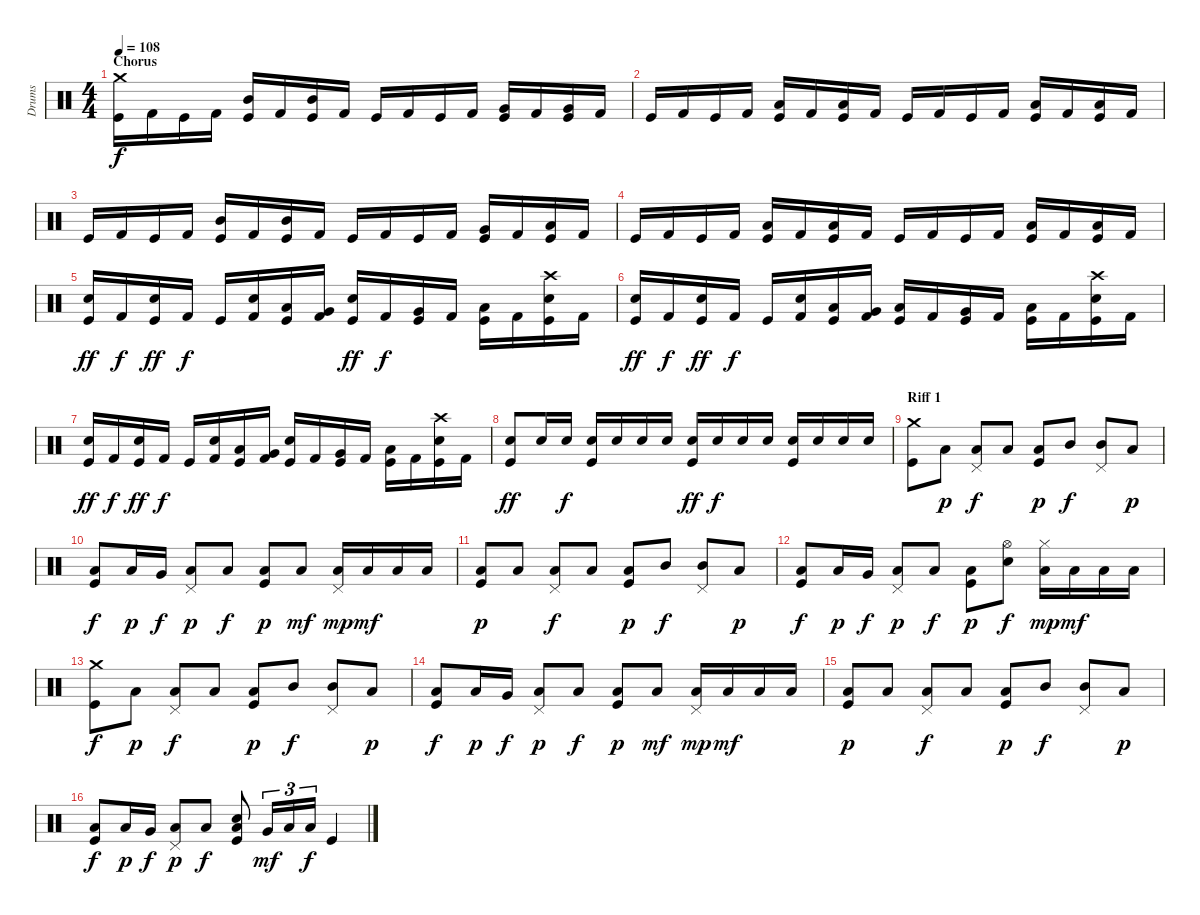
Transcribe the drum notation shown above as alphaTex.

\track ("Drums" "Drums") {instrument percussion}
\staff {score}
\articulation defaults
\ts (4 4)
\section ("" "Chorus")
\tempo 108
\clef neutral
\ks c
("Crash medium (hit)" "Kick (hit)").16{dy f} "Kick (hit) 2".16 "Kick (hit)".16 "Kick (hit) 2".16 ("Mid Tom (hit)" "Kick (hit)").16 "Kick (hit) 2".16 ("Mid Tom (hit)" "Kick (hit)").16 "Kick (hit) 2".16 "Kick (hit)".16 "Kick (hit) 2".16 "Kick (hit)".16 "Kick (hit) 2".16 ("Very Low Tom (hit)" "Kick (hit)").16 "Kick (hit) 2".16 ("Very Low Tom (hit)" "Kick (hit)").16 "Kick (hit) 2".16 |
"Kick (hit)".16 "Kick (hit) 2".16 "Kick (hit)".16 "Kick (hit) 2".16 ("Low Tom (hit)" "Kick (hit)").16 "Kick (hit) 2".16 ("Low Tom (hit)" "Kick (hit)").16 "Kick (hit) 2".16 "Kick (hit)".16 "Kick (hit) 2".16 "Kick (hit)".16 "Kick (hit) 2".16 ("Low Floor Tom (hit)" "Kick (hit)").16 "Kick (hit) 2".16 ("Low Floor Tom (hit)" "Kick (hit)").16 "Kick (hit) 2".16 |
"Kick (hit)".16 "Kick (hit) 2".16 "Kick (hit)".16 "Kick (hit) 2".16 ("Mid Tom (hit)" "Kick (hit)").16 "Kick (hit) 2".16 ("Mid Tom (hit)" "Kick (hit)").16 "Kick (hit) 2".16 "Kick (hit)".16 "Kick (hit) 2".16 "Kick (hit)".16 "Kick (hit) 2".16 ("Very Low Tom (hit)" "Kick (hit)").16 "Kick (hit) 2".16 ("Low Floor Tom (hit)" "Kick (hit)").16 "Kick (hit) 2".16 |
"Kick (hit)".16 "Kick (hit) 2".16 "Kick (hit)".16 "Kick (hit) 2".16 ("Low Tom (hit)" "Kick (hit)").16 "Kick (hit) 2".16 ("Low Tom (hit)" "Kick (hit)").16 "Kick (hit) 2".16 "Kick (hit)".16 "Kick (hit) 2".16 "Kick (hit)".16 "Kick (hit) 2".16 ("Low Floor Tom (hit)" "Kick (hit)").16 "Kick (hit) 2".16 ("Low Floor Tom (hit)" "Kick (hit)").16 "Kick (hit) 2".16 |
("Electric Snare (hit)" "Kick (hit)").16{dy ff} "Kick (hit) 2".16{dy f} ("Electric Snare (hit)" "Kick (hit)").16{dy ff} "Kick (hit) 2".16{dy f} "Kick (hit)".16 ("Electric Snare (hit)" "Kick (hit) 2").16 ("Low Tom (hit)" "Kick (hit)").16 ("Very Low Tom (hit)" "Kick (hit) 2").16 ("Electric Snare (hit)" "Kick (hit)").16{dy ff} "Kick (hit) 2".16{dy f} ("Very Low Tom (hit)" "Kick (hit)").16 "Kick (hit) 2".16 ("Low Floor Tom (hit)" "Kick (hit)").16 "Kick (hit) 2".16 ("Crash high (hit)" "Electric Snare (hit)" "Kick (hit)").16 "Kick (hit) 2".16 |
("Electric Snare (hit)" "Kick (hit)").16{dy ff} "Kick (hit) 2".16{dy f} ("Electric Snare (hit)" "Kick (hit)").16{dy ff} "Kick (hit) 2".16{dy f} "Kick (hit)".16 ("Electric Snare (hit)" "Kick (hit) 2").16 ("Low Tom (hit)" "Kick (hit)").16 ("Very Low Tom (hit)" "Kick (hit) 2").16 ("Low Tom (hit)" "Kick (hit)").16 "Kick (hit) 2".16 ("Very Low Tom (hit)" "Kick (hit)").16 "Kick (hit) 2".16 ("Low Floor Tom (hit)" "Kick (hit)").16 "Kick (hit) 2".16 ("Crash high (hit)" "Electric Snare (hit)" "Kick (hit)").16 "Kick (hit) 2".16 |
("Electric Snare (hit)" "Kick (hit)").16{dy ff} "Kick (hit) 2".16{dy f} ("Electric Snare (hit)" "Kick (hit)").16{dy ff} "Kick (hit) 2".16{dy f} "Kick (hit)".16 ("Electric Snare (hit)" "Kick (hit) 2").16 ("Low Tom (hit)" "Kick (hit)").16 ("Very Low Tom (hit)" "Kick (hit) 2").16 ("Electric Snare (hit)" "Kick (hit)").16 "Kick (hit) 2".16 ("Very Low Tom (hit)" "Kick (hit)").16 "Kick (hit) 2".16 ("Low Floor Tom (hit)" "Kick (hit)").16 "Kick (hit) 2".16 ("Crash high (hit)" "Electric Snare (hit)" "Kick (hit)").16 "Kick (hit) 2".16 |
("Electric Snare (hit)" "Kick (hit)").8{dy ff} "Electric Snare (hit)".16 "Electric Snare (hit)".16{dy f} ("Electric Snare (hit)" "Kick (hit)").16 "Electric Snare (hit)".16 "Electric Snare (hit)".16 "Electric Snare (hit)".16 ("Electric Snare (hit)" "Kick (hit)").16{dy ff} "Electric Snare (hit)".16{dy f} "Electric Snare (hit)".16 "Electric Snare (hit)".16 ("Electric Snare (hit)" "Kick (hit)").16 "Electric Snare (hit)".16 "Electric Snare (hit)".16 "Electric Snare (hit)".16 |
\section ("" "Riff 1")
("Crash medium (hit)" "Kick (hit)").8 "Low Floor Tom (hit)".8{dy p} ("Low Tom (hit)" "Pedal Hi-Hat (hit)").8{dy f} "Low Tom (hit)".8 ("Low Floor Tom (hit)" "Kick (hit)").8{dy p} "Mid Tom (hit)".8{dy f} ("Mid Tom (hit)" "Pedal Hi-Hat (hit)").8 "Low Floor Tom (hit)".8{dy p} |
("Low Tom (hit)" "Kick (hit)").8{dy f} "Low Floor Tom (hit)".16{dy p} "Very Low Tom (hit)".16{dy f} ("Low Floor Tom (hit)" "Pedal Hi-Hat (hit)").8{dy p} "Low Tom (hit)".8{dy f} ("Low Floor Tom (hit)" "Kick (hit)").8{dy p} "Low Floor Tom (hit)".8{dy mf} ("Low Floor Tom (hit)" "Pedal Hi-Hat (hit)").16{dy mp} "Low Floor Tom (hit)".16{dy mf} "Low Floor Tom (hit)".16 "Low Floor Tom (hit)".16 |
("Low Floor Tom (hit)" "Kick (hit)").8{dy p} "Low Floor Tom (hit)".8 ("Low Tom (hit)" "Pedal Hi-Hat (hit)").8{dy f} "Low Tom (hit)".8 ("Low Floor Tom (hit)" "Kick (hit)").8{dy p} "Mid Tom (hit)".8{dy f} ("Mid Tom (hit)" "Pedal Hi-Hat (hit)").8 "Low Floor Tom (hit)".8{dy p} |
("Low Tom (hit)" "Kick (hit)").8{dy f} "Low Floor Tom (hit)".16{dy p} "Very Low Tom (hit)".16{dy f} ("Low Floor Tom (hit)" "Pedal Hi-Hat (hit)").8{dy p} "Low Tom (hit)".8{dy f} ("Low Floor Tom (hit)" "Kick (hit)").8{dy p} ("Hi-Hat (open)" "Electric Snare (hit)").8{dy f} ("Hi-Hat (closed)" "Low Floor Tom (hit)").16{dy mp} "Low Floor Tom (hit)".16{dy mf} "Low Floor Tom (hit)".16 "Low Floor Tom (hit)".16 |
("Crash medium (hit)" "Kick (hit)").8{dy f} "Low Floor Tom (hit)".8{dy p} ("Low Tom (hit)" "Pedal Hi-Hat (hit)").8{dy f} "Low Tom (hit)".8 ("Low Floor Tom (hit)" "Kick (hit)").8{dy p} "Mid Tom (hit)".8{dy f} ("Mid Tom (hit)" "Pedal Hi-Hat (hit)").8 "Low Floor Tom (hit)".8{dy p} |
("Low Tom (hit)" "Kick (hit)").8{dy f} "Low Floor Tom (hit)".16{dy p} "Very Low Tom (hit)".16{dy f} ("Low Floor Tom (hit)" "Pedal Hi-Hat (hit)").8{dy p} "Low Tom (hit)".8{dy f} ("Low Floor Tom (hit)" "Kick (hit)").8{dy p} "Low Floor Tom (hit)".8{dy mf} ("Low Floor Tom (hit)" "Pedal Hi-Hat (hit)").16{dy mp} "Low Floor Tom (hit)".16{dy mf} "Low Floor Tom (hit)".16 "Low Floor Tom (hit)".16 |
("Low Floor Tom (hit)" "Kick (hit)").8{dy p} "Low Floor Tom (hit)".8 ("Low Tom (hit)" "Pedal Hi-Hat (hit)").8{dy f} "Low Tom (hit)".8 ("Low Floor Tom (hit)" "Kick (hit)").8{dy p} "Mid Tom (hit)".8{dy f} ("Mid Tom (hit)" "Pedal Hi-Hat (hit)").8 "Low Floor Tom (hit)".8{dy p} |
("Low Tom (hit)" "Kick (hit)").8{dy f} "Low Floor Tom (hit)".16{dy p} "Very Low Tom (hit)".16{dy f} ("Low Floor Tom (hit)" "Pedal Hi-Hat (hit)").8{dy p} "Low Tom (hit)".8{dy f} ("Electric Snare (hit)" "Low Floor Tom (hit)" "Kick (hit)").8 "Very Low Tom (hit)".16{tu (3 2) dy mf} "Low Tom (hit)".16{tu (3 2)} "Low Floor Tom (hit)".16{tu (3 2) dy f} "Kick (hit)".4
